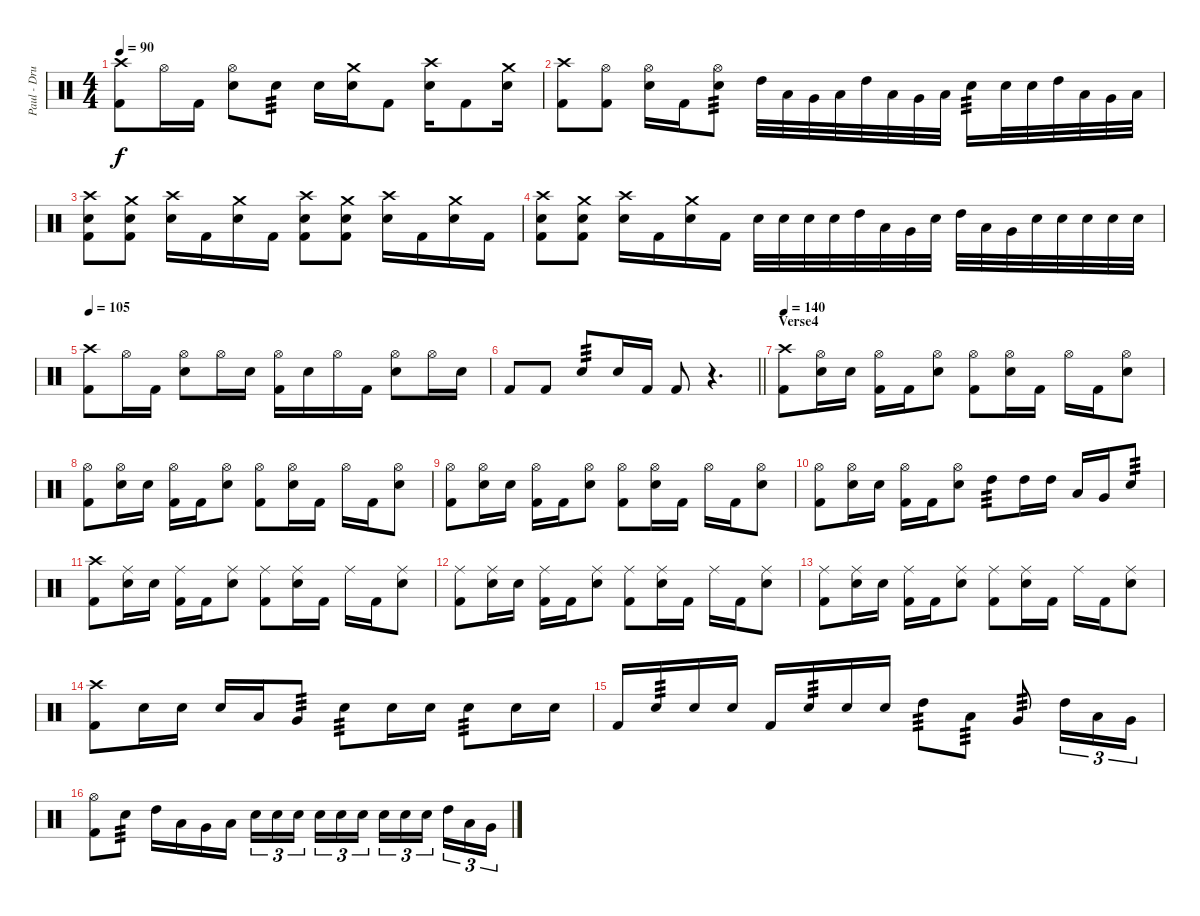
\track ("Paul - Drums" "Paul - Dru") {instrument percussion}
\staff {score}
\articulation defaults
\ts (4 4)
\tempo 90
\clef neutral
\ks c
("Crash high (hit)" "Kick (hit) 2").8{dy f} "Hi-Hat (open)".16 "Kick (hit) 2".16 ("Hi-Hat (open)" "Electric Snare (hit)").8 "Electric Snare (hit)".8{tp 3} "Electric Snare (hit)".16 ("Crash medium (hit)" "Electric Snare (hit)").16 "Kick (hit) 2".8 ("Crash high (hit)" "Electric Snare (hit)").16 "Kick (hit) 2".8 ("Crash medium (hit)" "Electric Snare (hit)").16 |
("Crash high (hit)" "Kick (hit) 2").8 ("Hi-Hat (open)" "Kick (hit) 2").8 ("Hi-Hat (open)" "Electric Snare (hit)").16 "Kick (hit) 2".16 ("Hi-Hat (open)" "Electric Snare (hit)").8{tp 3} "High Tom (hit)".32 "Low Tom (hit)".32 "Very Low Tom (hit)".32 "Low Floor Tom (hit)".32 "High Tom (hit)".32 "Low Tom (hit)".32 "Very Low Tom (hit)".32 "Low Floor Tom (hit)".32 "Electric Snare (hit)".16{tp 3} "Electric Snare (hit)".32 "Electric Snare (hit)".32 "High Tom (hit)".32 "Low Tom (hit)".32 "Very Low Tom (hit)".32 "Low Floor Tom (hit)".32 |
("Crash high (hit)" "Electric Snare (hit)" "Kick (hit) 2").8 ("Crash medium (hit)" "Electric Snare (hit)" "Kick (hit) 2").8 ("Crash high (hit)" "Electric Snare (hit)").16 "Kick (hit) 2".16 ("Crash medium (hit)" "Electric Snare (hit)").16 "Kick (hit) 2".16 ("Crash high (hit)" "Electric Snare (hit)" "Kick (hit) 2").8 ("Crash medium (hit)" "Electric Snare (hit)" "Kick (hit) 2").8 ("Crash high (hit)" "Electric Snare (hit)").16 "Kick (hit) 2".16 ("Crash medium (hit)" "Electric Snare (hit)").16 "Kick (hit) 2".16 |
("Crash high (hit)" "Electric Snare (hit)" "Kick (hit) 2").8 ("Crash medium (hit)" "Electric Snare (hit)" "Kick (hit) 2").8 ("Crash high (hit)" "Electric Snare (hit)").16 "Kick (hit) 2".16 ("Crash medium (hit)" "Electric Snare (hit)").16 "Kick (hit) 2".16 "Electric Snare (hit)".32 "Electric Snare (hit)".32 "Electric Snare (hit)".32 "Electric Snare (hit)".32 "High Tom (hit)".32 "Low Tom (hit)".32 "Very Low Tom (hit)".32 "Electric Snare (hit)".32 "High Tom (hit)".32 "Low Tom (hit)".32 "Very Low Tom (hit)".32 "Electric Snare (hit)".32 "Electric Snare (hit)".32 "Electric Snare (hit)".32 "Electric Snare (hit)".32 "Electric Snare (hit)".32 |
\tempo 105
("Crash high (hit)" "Kick (hit) 2").8 "Hi-Hat (open)".16 "Kick (hit) 2".16 ("Hi-Hat (open)" "Electric Snare (hit)").8 "Hi-Hat (open)".16 "Electric Snare (hit)".16 ("Hi-Hat (open)" "Kick (hit) 2").16 "Electric Snare (hit)".16 "Hi-Hat (open)".16 "Kick (hit) 2".16 ("Hi-Hat (open)" "Electric Snare (hit)").8 "Hi-Hat (open)".16 "Electric Snare (hit)".16 |
\barLineRight lightlight "Kick (hit) 2".8 "Kick (hit) 2".8 "Electric Snare (hit)".8{tp 3} "Electric Snare (hit)".16 "Kick (hit) 2".16 "Kick (hit) 2".8
r.4{d} |
\section ("" "Verse4")
\tempo 140
("Crash high (hit)" "Kick (hit) 2").8 ("Hi-Hat (open)" "Electric Snare (hit)").16 "Electric Snare (hit)".16 ("Hi-Hat (open)" "Kick (hit) 2").16 "Kick (hit) 2".16 ("Hi-Hat (open)" "Electric Snare (hit)").8 ("Hi-Hat (open)" "Kick (hit) 2").8 ("Hi-Hat (open)" "Electric Snare (hit)").16 "Kick (hit) 2".16 "Hi-Hat (open)".16 "Kick (hit) 2".16 ("Hi-Hat (open)" "Electric Snare (hit)").8 |
("Hi-Hat (open)" "Kick (hit) 2").8 ("Hi-Hat (open)" "Electric Snare (hit)").16 "Electric Snare (hit)".16 ("Hi-Hat (open)" "Kick (hit) 2").16 "Kick (hit) 2".16 ("Hi-Hat (open)" "Electric Snare (hit)").8 ("Hi-Hat (open)" "Kick (hit) 2").8 ("Hi-Hat (open)" "Electric Snare (hit)").16 "Kick (hit) 2".16 "Hi-Hat (open)".16 "Kick (hit) 2".16 ("Hi-Hat (open)" "Electric Snare (hit)").8 |
("Hi-Hat (open)" "Kick (hit) 2").8 ("Hi-Hat (open)" "Electric Snare (hit)").16 "Electric Snare (hit)".16 ("Hi-Hat (open)" "Kick (hit) 2").16 "Kick (hit) 2".16 ("Hi-Hat (open)" "Electric Snare (hit)").8 ("Hi-Hat (open)" "Kick (hit) 2").8 ("Hi-Hat (open)" "Electric Snare (hit)").16 "Kick (hit) 2".16 "Hi-Hat (open)".16 "Kick (hit) 2".16 ("Hi-Hat (open)" "Electric Snare (hit)").8 |
("Hi-Hat (open)" "Kick (hit) 2").8 ("Hi-Hat (open)" "Electric Snare (hit)").16 "Electric Snare (hit)".16 ("Hi-Hat (open)" "Kick (hit) 2").16 "Kick (hit) 2".16 ("Hi-Hat (open)" "Electric Snare (hit)").8 "High Tom (hit)".8{tp 3} "High Tom (hit)".16 "High Tom (hit)".16 "Low Tom (hit)".16 "Very Low Tom (hit)".16 "Electric Snare (hit)".8{tp 3} |
("Crash high (hit)" "Kick (hit) 2").8 ("Ride (middle)" "Electric Snare (hit)").16 "Electric Snare (hit)".16 ("Ride (middle)" "Kick (hit) 2").16 "Kick (hit) 2".16 ("Ride (middle)" "Electric Snare (hit)").8 ("Ride (middle)" "Kick (hit) 2").8 ("Ride (middle)" "Electric Snare (hit)").16 "Kick (hit) 2".16 "Ride (middle)".16 "Kick (hit) 2".16 ("Ride (middle)" "Electric Snare (hit)").8 |
("Ride (middle)" "Kick (hit) 2").8 ("Ride (middle)" "Electric Snare (hit)").16 "Electric Snare (hit)".16 ("Ride (middle)" "Kick (hit) 2").16 "Kick (hit) 2".16 ("Ride (middle)" "Electric Snare (hit)").8 ("Ride (middle)" "Kick (hit) 2").8 ("Ride (middle)" "Electric Snare (hit)").16 "Kick (hit) 2".16 "Ride (middle)".16 "Kick (hit) 2".16 ("Ride (middle)" "Electric Snare (hit)").8 |
("Ride (middle)" "Kick (hit) 2").8 ("Ride (middle)" "Electric Snare (hit)").16 "Electric Snare (hit)".16 ("Ride (middle)" "Kick (hit) 2").16 "Kick (hit) 2".16 ("Ride (middle)" "Electric Snare (hit)").8 ("Ride (middle)" "Kick (hit) 2").8 ("Ride (middle)" "Electric Snare (hit)").16 "Kick (hit) 2".16 "Ride (middle)".16 "Kick (hit) 2".16 ("Ride (middle)" "Electric Snare (hit)").8 |
("Crash high (hit)" "Kick (hit) 2").8 "Electric Snare (hit)".16 "Electric Snare (hit)".16 "Electric Snare (hit)".16 "Low Tom (hit)".16 "Very Low Tom (hit)".8{tp 3} "Electric Snare (hit)".8{tp 3} "Electric Snare (hit)".16 "Electric Snare (hit)".16 "Electric Snare (hit)".8{tp 3} "Electric Snare (hit)".16 "Electric Snare (hit)".16 |
"Kick (hit) 2".16 "Electric Snare (hit)".16{tp 3} "Electric Snare (hit)".16 "Electric Snare (hit)".16 "Kick (hit) 2".16 "Electric Snare (hit)".16{tp 3} "Electric Snare (hit)".16 "Electric Snare (hit)".16 "High Tom (hit)".8{tp 3} "Low Tom (hit)".8{tp 3} "Very Low Tom (hit)".8{tp 3} "High Tom (hit)".16{tu (3 2)} "Low Tom (hit)".16{tu (3 2)} "Very Low Tom (hit)".16{tu (3 2)} |
("Hi-Hat (open)" "Kick (hit) 2").8 "Electric Snare (hit)".8{tp 3} "High Tom (hit)".16 "Low Tom (hit)".16 "Very Low Tom (hit)".16 "Low Floor Tom (hit)".16 "Electric Snare (hit)".16{tu (3 2)} "Electric Snare (hit)".16{tu (3 2)} "Electric Snare (hit)".16{tu (3 2) beam splitsecondary} "Electric Snare (hit)".16{tu (3 2)} "Electric Snare (hit)".16{tu (3 2)} "Electric Snare (hit)".16{tu (3 2)} "Electric Snare (hit)".16{tu (3 2)} "Electric Snare (hit)".16{tu (3 2)} "Electric Snare (hit)".16{tu (3 2) beam splitsecondary} "High Tom (hit)".16{tu (3 2)} "Low Tom (hit)".16{tu (3 2)} "Very Low Tom (hit)".16{tu (3 2)}
